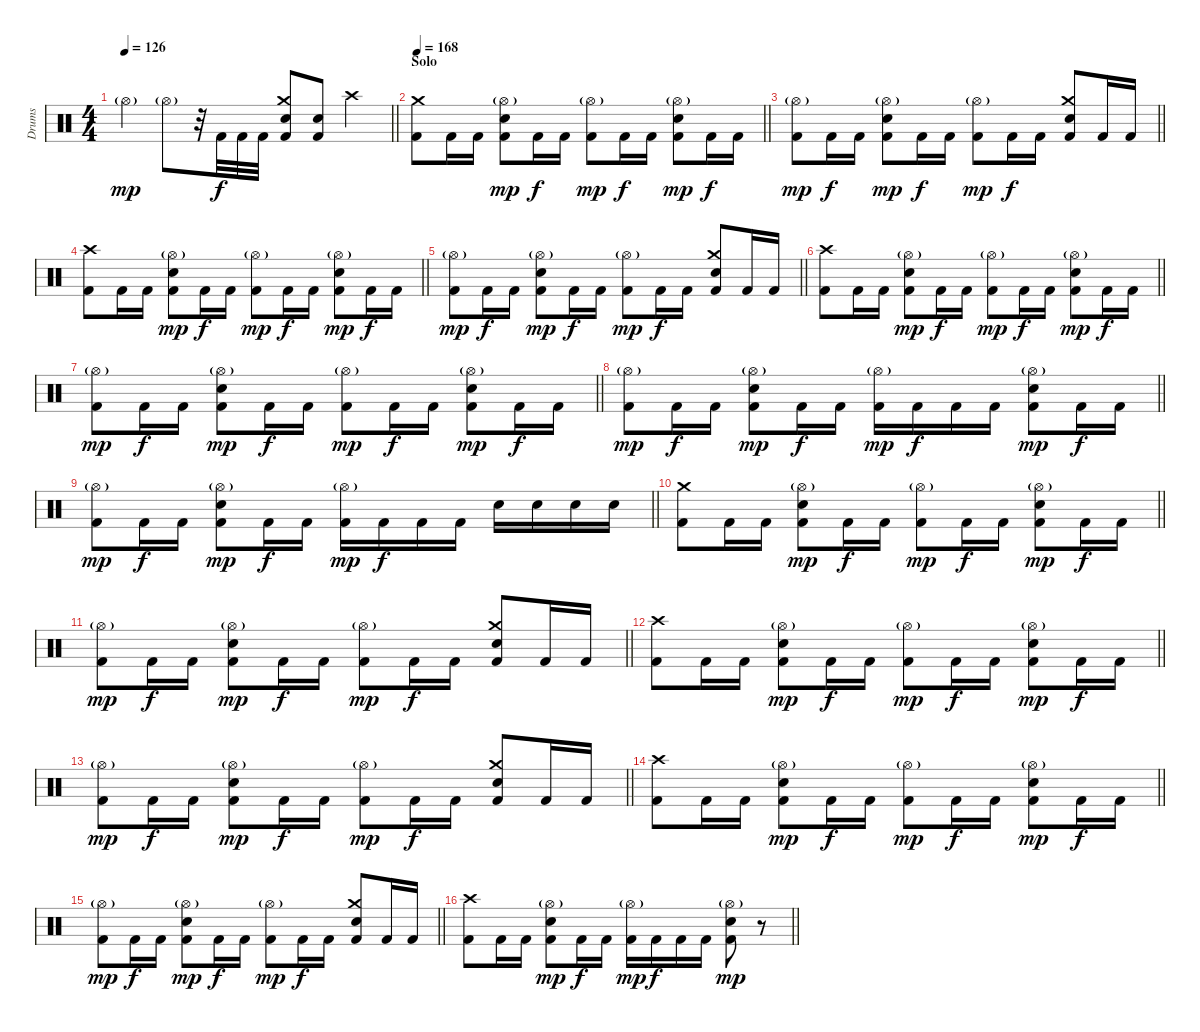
\track ("Drums" "Drums") {instrument percussion}
\staff {score}
\articulation defaults
\ts (4 4)
\tempo 126
\clef neutral
\barLineRight lightlight
\ks c "Hi-Hat (open)"{g}.4{dy mp} "Hi-Hat (open)"{g}.8
r.32 "Kick (hit) 2".32{dy f} "Kick (hit) 2".32 "Kick (hit) 2".32 ("Crash medium (hit)" "Snare (hit) 2" "Kick (hit) 2").8 ("Snare (hit) 2" "Kick (hit) 2").8 "Crash high (hit)".4 |
\section ("" "Solo")
\tempo 168
\barLineRight lightlight
("Crash medium (hit)" "Kick (hit) 2").8 "Kick (hit) 2".16 "Kick (hit) 2".16 ("Snare (hit) 2" "Hi-Hat (open)"{g} "Kick (hit) 2").8{dy mp} "Kick (hit) 2".16{dy f} "Kick (hit) 2".16 ("Hi-Hat (open)"{g} "Kick (hit) 2").8{dy mp} "Kick (hit) 2".16{dy f} "Kick (hit) 2".16 ("Snare (hit) 2" "Hi-Hat (open)"{g} "Kick (hit) 2").8{dy mp} "Kick (hit) 2".16{dy f} "Kick (hit) 2".16 |
\barLineRight lightlight
("Hi-Hat (open)"{g} "Kick (hit) 2").8{dy mp} "Kick (hit) 2".16{dy f} "Kick (hit) 2".16 ("Snare (hit) 2" "Hi-Hat (open)"{g} "Kick (hit) 2").8{dy mp} "Kick (hit) 2".16{dy f} "Kick (hit) 2".16 ("Hi-Hat (open)"{g} "Kick (hit) 2").8{dy mp} "Kick (hit) 2".16{dy f} "Kick (hit) 2".16 ("Crash medium (hit)" "Snare (hit) 2" "Kick (hit) 2").8 "Kick (hit) 2".16 "Kick (hit) 2".16 |
\barLineRight lightlight
("Crash high (hit)" "Kick (hit) 2").8 "Kick (hit) 2".16 "Kick (hit) 2".16 ("Snare (hit) 2" "Hi-Hat (open)"{g} "Kick (hit) 2").8{dy mp} "Kick (hit) 2".16{dy f} "Kick (hit) 2".16 ("Hi-Hat (open)"{g} "Kick (hit) 2").8{dy mp} "Kick (hit) 2".16{dy f} "Kick (hit) 2".16 ("Snare (hit) 2" "Hi-Hat (open)"{g} "Kick (hit) 2").8{dy mp} "Kick (hit) 2".16{dy f} "Kick (hit) 2".16 |
\barLineRight lightlight
("Hi-Hat (open)"{g} "Kick (hit) 2").8{dy mp} "Kick (hit) 2".16{dy f} "Kick (hit) 2".16 ("Snare (hit) 2" "Hi-Hat (open)"{g} "Kick (hit) 2").8{dy mp} "Kick (hit) 2".16{dy f} "Kick (hit) 2".16 ("Hi-Hat (open)"{g} "Kick (hit) 2").8{dy mp} "Kick (hit) 2".16{dy f} "Kick (hit) 2".16 ("Crash medium (hit)" "Snare (hit) 2" "Kick (hit) 2").8 "Kick (hit) 2".16 "Kick (hit) 2".16 |
\barLineRight lightlight
("Crash high (hit)" "Kick (hit) 2").8 "Kick (hit) 2".16 "Kick (hit) 2".16 ("Snare (hit) 2" "Hi-Hat (open)"{g} "Kick (hit) 2").8{dy mp} "Kick (hit) 2".16{dy f} "Kick (hit) 2".16 ("Hi-Hat (open)"{g} "Kick (hit) 2").8{dy mp} "Kick (hit) 2".16{dy f} "Kick (hit) 2".16 ("Snare (hit) 2" "Hi-Hat (open)"{g} "Kick (hit) 2").8{dy mp} "Kick (hit) 2".16{dy f} "Kick (hit) 2".16 |
\barLineRight lightlight
("Hi-Hat (open)"{g} "Kick (hit) 2").8{dy mp} "Kick (hit) 2".16{dy f} "Kick (hit) 2".16 ("Snare (hit) 2" "Hi-Hat (open)"{g} "Kick (hit) 2").8{dy mp} "Kick (hit) 2".16{dy f} "Kick (hit) 2".16 ("Hi-Hat (open)"{g} "Kick (hit) 2").8{dy mp} "Kick (hit) 2".16{dy f} "Kick (hit) 2".16 ("Snare (hit) 2" "Hi-Hat (open)"{g} "Kick (hit) 2").8{dy mp} "Kick (hit) 2".16{dy f} "Kick (hit) 2".16 |
\barLineRight lightlight
("Hi-Hat (open)"{g} "Kick (hit) 2").8{dy mp} "Kick (hit) 2".16{dy f} "Kick (hit) 2".16 ("Snare (hit) 2" "Hi-Hat (open)"{g} "Kick (hit) 2").8{dy mp} "Kick (hit) 2".16{dy f} "Kick (hit) 2".16 ("Hi-Hat (open)"{g} "Kick (hit) 2").16{dy mp} "Kick (hit) 2".16{dy f} "Kick (hit) 2".16 "Kick (hit) 2".16 ("Snare (hit) 2" "Hi-Hat (open)"{g} "Kick (hit) 2").8{dy mp} "Kick (hit) 2".16{dy f} "Kick (hit) 2".16 |
\barLineRight lightlight
("Hi-Hat (open)"{g} "Kick (hit) 2").8{dy mp} "Kick (hit) 2".16{dy f} "Kick (hit) 2".16 ("Snare (hit) 2" "Hi-Hat (open)"{g} "Kick (hit) 2").8{dy mp} "Kick (hit) 2".16{dy f} "Kick (hit) 2".16 ("Hi-Hat (open)"{g} "Kick (hit) 2").16{dy mp} "Kick (hit) 2".16{dy f} "Kick (hit) 2".16 "Kick (hit) 2".16 "Snare (hit) 2".16 "Snare (hit) 2".16 "Snare (hit) 2".16 "Snare (hit) 2".16 |
\barLineRight lightlight
("Crash medium (hit)" "Kick (hit) 2").8 "Kick (hit) 2".16 "Kick (hit) 2".16 ("Snare (hit) 2" "Hi-Hat (open)"{g} "Kick (hit) 2").8{dy mp} "Kick (hit) 2".16{dy f} "Kick (hit) 2".16 ("Hi-Hat (open)"{g} "Kick (hit) 2").8{dy mp} "Kick (hit) 2".16{dy f} "Kick (hit) 2".16 ("Snare (hit) 2" "Hi-Hat (open)"{g} "Kick (hit) 2").8{dy mp} "Kick (hit) 2".16{dy f} "Kick (hit) 2".16 |
\barLineRight lightlight
("Hi-Hat (open)"{g} "Kick (hit) 2").8{dy mp} "Kick (hit) 2".16{dy f} "Kick (hit) 2".16 ("Snare (hit) 2" "Hi-Hat (open)"{g} "Kick (hit) 2").8{dy mp} "Kick (hit) 2".16{dy f} "Kick (hit) 2".16 ("Hi-Hat (open)"{g} "Kick (hit) 2").8{dy mp} "Kick (hit) 2".16{dy f} "Kick (hit) 2".16 ("Crash medium (hit)" "Snare (hit) 2" "Kick (hit) 2").8 "Kick (hit) 2".16 "Kick (hit) 2".16 |
\barLineRight lightlight
("Crash high (hit)" "Kick (hit) 2").8 "Kick (hit) 2".16 "Kick (hit) 2".16 ("Snare (hit) 2" "Hi-Hat (open)"{g} "Kick (hit) 2").8{dy mp} "Kick (hit) 2".16{dy f} "Kick (hit) 2".16 ("Hi-Hat (open)"{g} "Kick (hit) 2").8{dy mp} "Kick (hit) 2".16{dy f} "Kick (hit) 2".16 ("Snare (hit) 2" "Hi-Hat (open)"{g} "Kick (hit) 2").8{dy mp} "Kick (hit) 2".16{dy f} "Kick (hit) 2".16 |
\barLineRight lightlight
("Hi-Hat (open)"{g} "Kick (hit) 2").8{dy mp} "Kick (hit) 2".16{dy f} "Kick (hit) 2".16 ("Snare (hit) 2" "Hi-Hat (open)"{g} "Kick (hit) 2").8{dy mp} "Kick (hit) 2".16{dy f} "Kick (hit) 2".16 ("Hi-Hat (open)"{g} "Kick (hit) 2").8{dy mp} "Kick (hit) 2".16{dy f} "Kick (hit) 2".16 ("Crash medium (hit)" "Snare (hit) 2" "Kick (hit) 2").8 "Kick (hit) 2".16 "Kick (hit) 2".16 |
\barLineRight lightlight
("Crash high (hit)" "Kick (hit) 2").8 "Kick (hit) 2".16 "Kick (hit) 2".16 ("Snare (hit) 2" "Hi-Hat (open)"{g} "Kick (hit) 2").8{dy mp} "Kick (hit) 2".16{dy f} "Kick (hit) 2".16 ("Hi-Hat (open)"{g} "Kick (hit) 2").8{dy mp} "Kick (hit) 2".16{dy f} "Kick (hit) 2".16 ("Snare (hit) 2" "Hi-Hat (open)"{g} "Kick (hit) 2").8{dy mp} "Kick (hit) 2".16{dy f} "Kick (hit) 2".16 |
\barLineRight lightlight
("Hi-Hat (open)"{g} "Kick (hit) 2").8{dy mp} "Kick (hit) 2".16{dy f} "Kick (hit) 2".16 ("Snare (hit) 2" "Hi-Hat (open)"{g} "Kick (hit) 2").8{dy mp} "Kick (hit) 2".16{dy f} "Kick (hit) 2".16 ("Hi-Hat (open)"{g} "Kick (hit) 2").8{dy mp} "Kick (hit) 2".16{dy f} "Kick (hit) 2".16 ("Crash medium (hit)" "Snare (hit) 2" "Kick (hit) 2").8 "Kick (hit) 2".16 "Kick (hit) 2".16 |
\barLineRight lightlight
("Crash high (hit)" "Kick (hit) 2").8 "Kick (hit) 2".16 "Kick (hit) 2".16 ("Snare (hit) 2" "Hi-Hat (open)"{g} "Kick (hit) 2").8{dy mp} "Kick (hit) 2".16{dy f} "Kick (hit) 2".16 ("Hi-Hat (open)"{g} "Kick (hit) 2").16{dy mp} "Kick (hit) 2".16{dy f} "Kick (hit) 2".16 "Kick (hit) 2".16 ("Snare (hit) 2" "Hi-Hat (open)"{g} "Kick (hit) 2").8{dy mp} r.8
